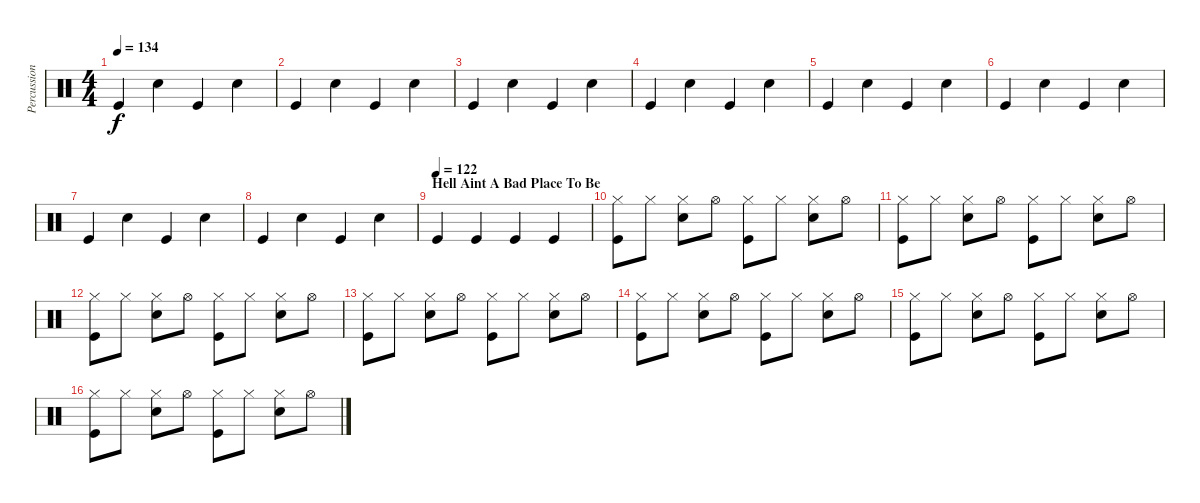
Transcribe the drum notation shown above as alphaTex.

\track ("Percussions" "Percussion") {instrument percussion}
\staff {score}
\articulation defaults
\ts (4 4)
\tempo 134
\clef neutral
\ks c "Kick (hit)".4{dy f} "Snare (hit) 2".4 "Kick (hit)".4 "Snare (hit) 2".4
|
"Kick (hit)".4 "Snare (hit) 2".4 "Kick (hit)".4 "Snare (hit) 2".4 |
"Kick (hit)".4 "Snare (hit) 2".4 "Kick (hit)".4 "Snare (hit) 2".4 |
"Kick (hit)".4 "Snare (hit) 2".4 "Kick (hit)".4 "Snare (hit) 2".4 |
"Kick (hit)".4 "Snare (hit) 2".4 "Kick (hit)".4 "Snare (hit) 2".4 |
"Kick (hit)".4 "Snare (hit) 2".4 "Kick (hit)".4 "Snare (hit) 2".4 |
"Kick (hit)".4 "Snare (hit) 2".4 "Kick (hit)".4 "Snare (hit) 2".4 |
"Kick (hit)".4 "Snare (hit) 2".4 "Kick (hit)".4 "Snare (hit) 2".4 |
\section ("" "Hell Aint A Bad Place To Be")
\tempo (122)
"Kick (hit)".4 "Kick (hit)".4 "Kick (hit)".4 "Kick (hit)".4 |
("Hi-Hat (closed)" "Kick (hit)").8 "Hi-Hat (closed)".8 ("Hi-Hat (closed)" "Snare (hit) 2").8 "Hi-Hat (open)".8 ("Hi-Hat (closed)" "Kick (hit)").8 "Hi-Hat (closed)".8 ("Hi-Hat (closed)" "Snare (hit) 2").8 "Hi-Hat (open)".8 |
("Hi-Hat (closed)" "Kick (hit)").8 "Hi-Hat (closed)".8 ("Hi-Hat (closed)" "Snare (hit) 2").8 "Hi-Hat (open)".8 ("Hi-Hat (closed)" "Kick (hit)").8 "Hi-Hat (closed)".8 ("Hi-Hat (closed)" "Snare (hit) 2").8 "Hi-Hat (open)".8 |
("Hi-Hat (closed)" "Kick (hit)").8 "Hi-Hat (closed)".8 ("Hi-Hat (closed)" "Snare (hit) 2").8 "Hi-Hat (open)".8 ("Hi-Hat (closed)" "Kick (hit)").8 "Hi-Hat (closed)".8 ("Hi-Hat (closed)" "Snare (hit) 2").8 "Hi-Hat (open)".8 |
("Hi-Hat (closed)" "Kick (hit)").8 "Hi-Hat (closed)".8 ("Hi-Hat (closed)" "Snare (hit) 2").8 "Hi-Hat (open)".8 ("Hi-Hat (closed)" "Kick (hit)").8 "Hi-Hat (closed)".8 ("Hi-Hat (closed)" "Snare (hit) 2").8 "Hi-Hat (open)".8 |
("Hi-Hat (closed)" "Kick (hit)").8 "Hi-Hat (closed)".8 ("Hi-Hat (closed)" "Snare (hit) 2").8 "Hi-Hat (open)".8 ("Hi-Hat (closed)" "Kick (hit)").8 "Hi-Hat (closed)".8 ("Hi-Hat (closed)" "Snare (hit) 2").8 "Hi-Hat (open)".8 |
("Hi-Hat (closed)" "Kick (hit)").8 "Hi-Hat (closed)".8 ("Hi-Hat (closed)" "Snare (hit) 2").8 "Hi-Hat (open)".8 ("Hi-Hat (closed)" "Kick (hit)").8 "Hi-Hat (closed)".8 ("Hi-Hat (closed)" "Snare (hit) 2").8 "Hi-Hat (open)".8 |
("Hi-Hat (closed)" "Kick (hit)").8 "Hi-Hat (closed)".8 ("Hi-Hat (closed)" "Snare (hit) 2").8 "Hi-Hat (open)".8 ("Hi-Hat (closed)" "Kick (hit)").8 "Hi-Hat (closed)".8 ("Hi-Hat (closed)" "Snare (hit) 2").8 "Hi-Hat (open)".8
